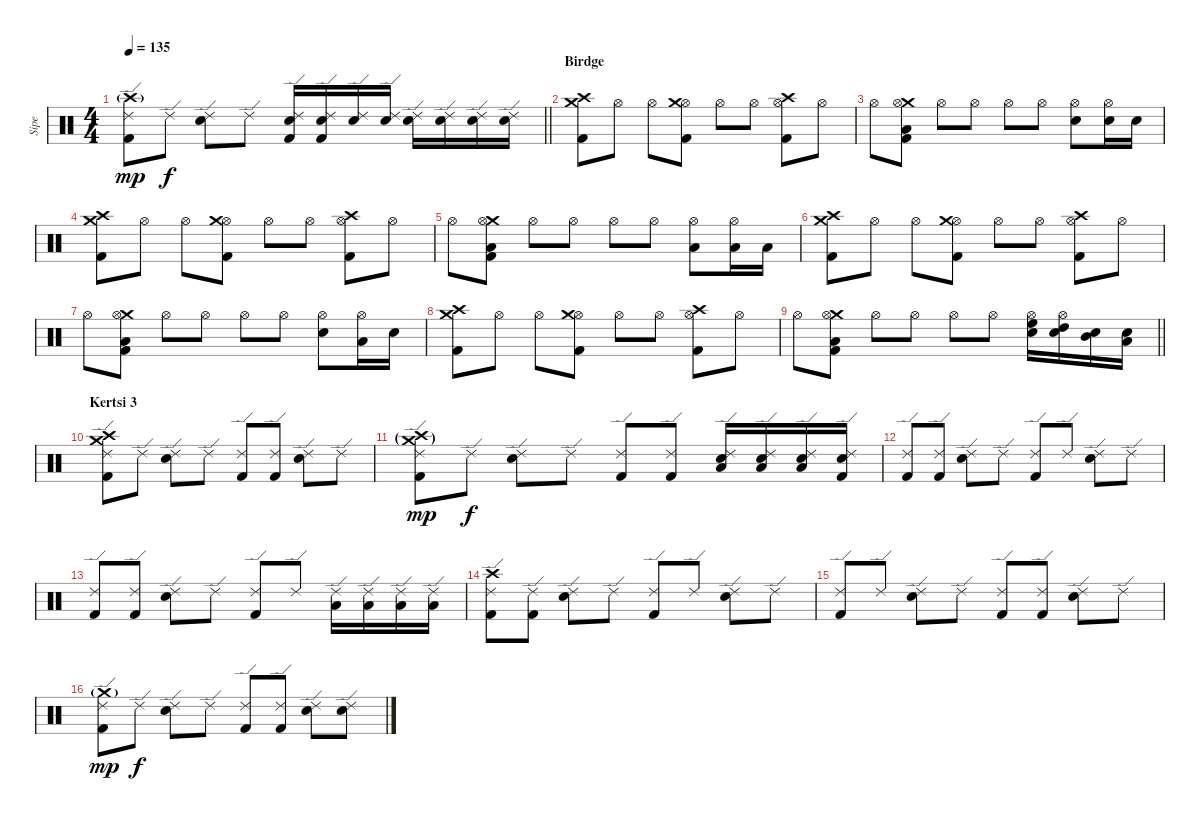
\track ("Sipe" "Sipe") {instrument percussion}
\staff {score}
\articulation defaults
\ts (4 4)
\tempo 135
\clef neutral
\barLineRight lightlight
\ks c
("Crash high (hit)"{g} "Kick (hit) 2" "Ride (edge) 2").8{dy mp} "Ride (edge) 2".8{dy f} ("Snare (hit) 2" "Ride (edge) 2").8 "Ride (edge) 2".8 ("Snare (hit) 2" "Kick (hit) 2" "Ride (edge) 2").16 ("Snare (hit) 2" "Kick (hit) 2" "Ride (edge) 2").16 ("Snare (hit) 2" "Ride (edge) 2").16 ("Snare (hit) 2" "Ride (edge) 2").16 ("Snare (hit) 2" "Ride (edge) 2").16 ("Snare (hit) 2" "Ride (edge) 2").16 ("Snare (hit) 2" "Ride (edge) 2").16 ("Snare (hit) 2" "Ride (edge) 2").16 |
\section ("" "Birdge")
("Kick (hit) 2" "Crash medium (hit)" "Crash high (hit)").8 "Hi-Hat (open)".8 "Hi-Hat (open)".8 ("Hi-Hat (open)" "Kick (hit) 2" "Crash medium (hit)").8 "Hi-Hat (open)".8 "Hi-Hat (open)".8 ("Crash high (hit)" "Hi-Hat (open)" "Kick (hit) 2").8 "Hi-Hat (open)".8 |
"Hi-Hat (open)".8 ("Crash medium (hit)" "Kick (hit) 2" "Hi-Hat (open)" "Low Tom (hit)").8 "Hi-Hat (open)".8 "Hi-Hat (open)".8 "Hi-Hat (open)".8 "Hi-Hat (open)".8 ("Hi-Hat (open)" "Snare (hit) 2").8 ("Hi-Hat (open)" "Snare (hit) 2").16 "Snare (hit) 2".16 |
("Kick (hit) 2" "Crash medium (hit)" "Crash high (hit)").8 "Hi-Hat (open)".8 "Hi-Hat (open)".8 ("Hi-Hat (open)" "Kick (hit) 2" "Crash medium (hit)").8 "Hi-Hat (open)".8 "Hi-Hat (open)".8 ("Crash high (hit)" "Hi-Hat (open)" "Kick (hit) 2").8 "Hi-Hat (open)".8 |
"Hi-Hat (open)".8 ("Crash medium (hit)" "Kick (hit) 2" "Hi-Hat (open)" "Low Tom (hit)").8 "Hi-Hat (open)".8 "Hi-Hat (open)".8 "Hi-Hat (open)".8 "Hi-Hat (open)".8 ("Hi-Hat (open)" "Low Tom (hit)").8 ("Hi-Hat (open)" "Low Tom (hit)").16 "Low Tom (hit)".16 |
("Kick (hit) 2" "Crash medium (hit)" "Crash high (hit)").8 "Hi-Hat (open)".8 "Hi-Hat (open)".8 ("Hi-Hat (open)" "Kick (hit) 2" "Crash medium (hit)").8 "Hi-Hat (open)".8 "Hi-Hat (open)".8 ("Crash high (hit)" "Hi-Hat (open)" "Kick (hit) 2").8 "Hi-Hat (open)".8 |
"Hi-Hat (open)".8 ("Crash medium (hit)" "Kick (hit) 2" "Hi-Hat (open)" "Low Tom (hit)").8 "Hi-Hat (open)".8 "Hi-Hat (open)".8 "Hi-Hat (open)".8 "Hi-Hat (open)".8 ("Hi-Hat (open)" "Snare (hit) 2").8 ("Hi-Hat (open)" "Low Tom (hit)").16 "Snare (hit) 2".16 |
("Kick (hit) 2" "Crash medium (hit)" "Crash high (hit)").8 "Hi-Hat (open)".8 "Hi-Hat (open)".8 ("Hi-Hat (open)" "Kick (hit) 2" "Crash medium (hit)").8 "Hi-Hat (open)".8 "Hi-Hat (open)".8 ("Crash high (hit)" "Hi-Hat (open)" "Kick (hit) 2").8 "Hi-Hat (open)".8 |
\barLineRight lightlight "Hi-Hat (open)".8
("Crash medium (hit)" "Kick (hit) 2" "Hi-Hat (open)" "Low Tom (hit)").8 "Hi-Hat (open)".8 "Hi-Hat (open)".8 "Hi-Hat (open)".8 "Hi-Hat (open)".8 ("Hi-Hat (open)" "Snare (hit) 2" "High Floor Tom (hit)").16 ("Hi-Hat (open)" "Snare (hit) 2" "High Tom (hit)").16 ("Snare (hit) 2" "Mid Tom (hit)").16 ("Snare (hit) 2" "Low Tom (hit)").16 |
\section ("" "Kertsi 3")
("Kick (hit) 2" "Ride (edge) 2" "Crash high (hit)" "Crash medium (hit)").8 "Ride (edge) 2".8 ("Snare (hit) 2" "Ride (edge) 2").8 "Ride (edge) 2".8 ("Kick (hit) 2" "Ride (edge) 2").8 ("Kick (hit) 2" "Ride (edge) 2").8 ("Snare (hit) 2" "Ride (edge) 2").8 "Ride (edge) 2".8 |
("Kick (hit) 2" "Ride (edge) 2" "Crash high (hit)"{g} "Crash medium (hit)"{g}).8{dy mp} "Ride (edge) 2".8{dy f} ("Snare (hit) 2" "Ride (edge) 2").8 "Ride (edge) 2".8 ("Kick (hit) 2" "Ride (edge) 2").8 ("Kick (hit) 2" "Ride (edge) 2").8 ("Snare (hit) 2" "Ride (edge) 2" "Low Tom (hit)").16 ("Snare (hit) 2" "Ride (edge) 2" "Low Tom (hit)").16 ("Snare (hit) 2" "Ride (edge) 2" "Low Tom (hit)").16 ("Snare (hit) 2" "Ride (edge) 2" "Kick (hit) 2").16 |
("Kick (hit) 2" "Ride (edge) 2").8 ("Kick (hit) 2" "Ride (edge) 2").8 ("Snare (hit) 2" "Ride (edge) 2").8 "Ride (edge) 2".8 ("Kick (hit) 2" "Ride (edge) 2").8 "Ride (edge) 2".8 ("Snare (hit) 2" "Ride (edge) 2").8 "Ride (edge) 2".8 |
("Kick (hit) 2" "Ride (edge) 2").8 ("Kick (hit) 2" "Ride (edge) 2").8 ("Snare (hit) 2" "Ride (edge) 2").8 "Ride (edge) 2".8 ("Kick (hit) 2" "Ride (edge) 2").8 "Ride (edge) 2".8 ("Low Tom (hit)" "Ride (edge) 2").16 ("Low Tom (hit)" "Ride (edge) 2").16 ("Low Tom (hit)" "Ride (edge) 2").16 ("Low Tom (hit)" "Ride (edge) 2").16 |
("Crash high (hit)" "Kick (hit) 2" "Ride (edge) 2").8 ("Kick (hit) 2" "Ride (edge) 2").8 ("Snare (hit) 2" "Ride (edge) 2").8 "Ride (edge) 2".8 ("Kick (hit) 2" "Ride (edge) 2").8 "Ride (edge) 2".8 ("Snare (hit) 2" "Ride (edge) 2").8 "Ride (edge) 2".8 |
("Kick (hit) 2" "Ride (edge) 2").8 "Ride (edge) 2".8 ("Snare (hit) 2" "Ride (edge) 2").8 "Ride (edge) 2".8 ("Kick (hit) 2" "Ride (edge) 2").8 ("Kick (hit) 2" "Ride (edge) 2").8 ("Snare (hit) 2" "Ride (edge) 2").8 "Ride (edge) 2".8 |
("Crash medium (hit)"{g} "Kick (hit) 2" "Ride (edge) 2").8{dy mp} "Ride (edge) 2".8{dy f} ("Snare (hit) 2" "Ride (edge) 2").8 "Ride (edge) 2".8 ("Kick (hit) 2" "Ride (edge) 2").8 ("Kick (hit) 2" "Ride (edge) 2").8 ("Snare (hit) 2" "Ride (edge) 2").8 ("Snare (hit) 2" "Ride (edge) 2").8
